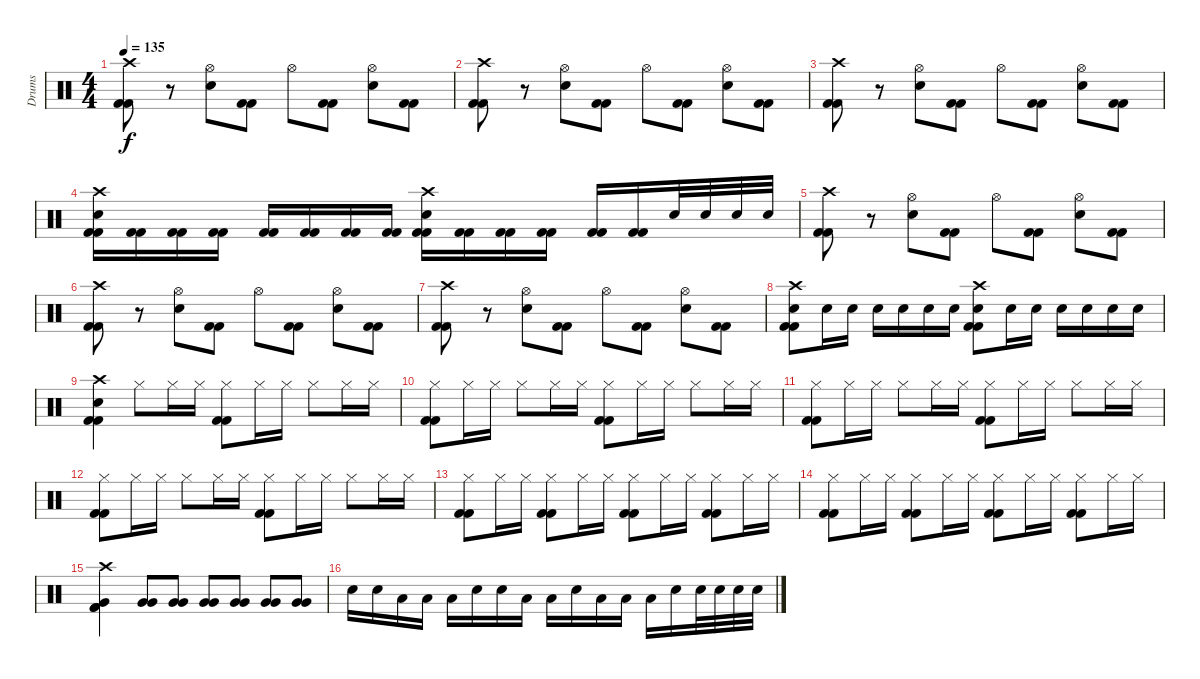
\track ("Drums" "Drums") {instrument percussion}
\staff {score}
\articulation defaults
\ts (4 4)
\tempo 135
\clef neutral
\ks c
("Crash high (hit)" "Kick (hit) 2" "Kick (hit) 2").8{dy f} r.8 ("Hi-Hat (open)" "Electric Snare (hit)").8 ("Kick (hit) 2" "Kick (hit) 2").8 "Hi-Hat (open)".8 ("Kick (hit) 2" "Kick (hit) 2").8 ("Hi-Hat (open)" "Electric Snare (hit)").8 ("Kick (hit) 2" "Kick (hit) 2").8 |
("Crash high (hit)" "Kick (hit) 2" "Kick (hit) 2").8 r.8 ("Hi-Hat (open)" "Electric Snare (hit)").8 ("Kick (hit) 2" "Kick (hit) 2").8 "Hi-Hat (open)".8 ("Kick (hit) 2" "Kick (hit) 2").8 ("Hi-Hat (open)" "Electric Snare (hit)").8 ("Kick (hit) 2" "Kick (hit) 2").8 |
("Crash high (hit)" "Kick (hit) 2" "Kick (hit) 2").8 r.8 ("Hi-Hat (open)" "Electric Snare (hit)").8 ("Kick (hit) 2" "Kick (hit) 2").8 "Hi-Hat (open)".8 ("Kick (hit) 2" "Kick (hit) 2").8 ("Hi-Hat (open)" "Electric Snare (hit)").8 ("Kick (hit) 2" "Kick (hit) 2").8 |
("Crash high (hit)" "Electric Snare (hit)" "Kick (hit) 2" "Kick (hit) 2").16 ("Kick (hit) 2" "Kick (hit) 2").16 ("Kick (hit) 2" "Kick (hit) 2").16 ("Kick (hit) 2" "Kick (hit) 2").16 ("Kick (hit) 2" "Kick (hit) 2").16 ("Kick (hit) 2" "Kick (hit) 2").16 ("Kick (hit) 2" "Kick (hit) 2").16 ("Kick (hit) 2" "Kick (hit) 2").16 ("Crash high (hit)" "Electric Snare (hit)" "Kick (hit) 2" "Kick (hit) 2").16 ("Kick (hit) 2" "Kick (hit) 2").16 ("Kick (hit) 2" "Kick (hit) 2").16 ("Kick (hit) 2" "Kick (hit) 2").16 ("Kick (hit) 2" "Kick (hit) 2").16 ("Kick (hit) 2" "Kick (hit) 2").16 "Electric Snare (hit)".32 "Electric Snare (hit)".32 "Electric Snare (hit)".32 "Electric Snare (hit)".32 |
("Crash high (hit)" "Kick (hit) 2" "Kick (hit) 2").8 r.8 ("Hi-Hat (open)" "Electric Snare (hit)").8 ("Kick (hit) 2" "Kick (hit) 2").8 "Hi-Hat (open)".8 ("Kick (hit) 2" "Kick (hit) 2").8 ("Hi-Hat (open)" "Electric Snare (hit)").8 ("Kick (hit) 2" "Kick (hit) 2").8 |
("Crash high (hit)" "Kick (hit) 2" "Kick (hit) 2").8 r.8 ("Hi-Hat (open)" "Electric Snare (hit)").8 ("Kick (hit) 2" "Kick (hit) 2").8 "Hi-Hat (open)".8 ("Kick (hit) 2" "Kick (hit) 2").8 ("Hi-Hat (open)" "Electric Snare (hit)").8 ("Kick (hit) 2" "Kick (hit) 2").8 |
("Crash high (hit)" "Kick (hit) 2" "Kick (hit) 2").8 r.8 ("Hi-Hat (open)" "Electric Snare (hit)").8 ("Kick (hit) 2" "Kick (hit) 2").8 "Hi-Hat (open)".8 ("Kick (hit) 2" "Kick (hit) 2").8 ("Hi-Hat (open)" "Electric Snare (hit)").8 ("Kick (hit) 2" "Kick (hit) 2").8 |
("Crash high (hit)" "Kick (hit) 2" "Electric Snare (hit)" "Kick (hit) 2").8 "Electric Snare (hit)".16 "Electric Snare (hit)".16 "Electric Snare (hit)".16 "Electric Snare (hit)".16 "Electric Snare (hit)".16 "Electric Snare (hit)".16 ("Crash high (hit)" "Kick (hit) 2" "Electric Snare (hit)" "Kick (hit) 2").8 "Electric Snare (hit)".16 "Electric Snare (hit)".16 "Electric Snare (hit)".16 "Electric Snare (hit)".16 "Electric Snare (hit)".16 "Electric Snare (hit)".16 |
("Crash high (hit)" "Electric Snare (hit)" "Kick (hit) 2" "Kick (hit) 2").4 "Hi-Hat (closed)".8 "Hi-Hat (closed)".16 "Hi-Hat (closed)".16 ("Hi-Hat (closed)" "Kick (hit) 2" "Kick (hit) 2").8 "Hi-Hat (closed)".16 "Hi-Hat (closed)".16 "Hi-Hat (closed)".8 "Hi-Hat (closed)".16 "Hi-Hat (closed)".16 |
("Hi-Hat (closed)" "Kick (hit) 2" "Kick (hit) 2").8 "Hi-Hat (closed)".16 "Hi-Hat (closed)".16 "Hi-Hat (closed)".8 "Hi-Hat (closed)".16 "Hi-Hat (closed)".16 ("Hi-Hat (closed)" "Kick (hit) 2" "Kick (hit) 2").8 "Hi-Hat (closed)".16 "Hi-Hat (closed)".16 "Hi-Hat (closed)".8 "Hi-Hat (closed)".16 "Hi-Hat (closed)".16 |
("Hi-Hat (closed)" "Kick (hit) 2" "Kick (hit) 2").8 "Hi-Hat (closed)".16 "Hi-Hat (closed)".16 "Hi-Hat (closed)".8 "Hi-Hat (closed)".16 "Hi-Hat (closed)".16 ("Hi-Hat (closed)" "Kick (hit) 2" "Kick (hit) 2").8 "Hi-Hat (closed)".16 "Hi-Hat (closed)".16 "Hi-Hat (closed)".8 "Hi-Hat (closed)".16 "Hi-Hat (closed)".16 |
("Hi-Hat (closed)" "Kick (hit) 2" "Kick (hit) 2").8 "Hi-Hat (closed)".16 "Hi-Hat (closed)".16 "Hi-Hat (closed)".8 "Hi-Hat (closed)".16 "Hi-Hat (closed)".16 ("Hi-Hat (closed)" "Kick (hit) 2" "Kick (hit) 2").8 "Hi-Hat (closed)".16 "Hi-Hat (closed)".16 "Hi-Hat (closed)".8 "Hi-Hat (closed)".16 "Hi-Hat (closed)".16 |
("Hi-Hat (closed)" "Kick (hit) 2" "Kick (hit) 2").8 "Hi-Hat (closed)".16 "Hi-Hat (closed)".16 ("Hi-Hat (closed)" "Kick (hit) 2" "Kick (hit) 2").8 "Hi-Hat (closed)".16 "Hi-Hat (closed)".16 ("Hi-Hat (closed)" "Kick (hit) 2" "Kick (hit) 2").8 "Hi-Hat (closed)".16 "Hi-Hat (closed)".16 ("Hi-Hat (closed)" "Kick (hit) 2" "Kick (hit) 2").8 "Hi-Hat (closed)".16 "Hi-Hat (closed)".16 |
("Hi-Hat (closed)" "Kick (hit) 2" "Kick (hit) 2").8 "Hi-Hat (closed)".16 "Hi-Hat (closed)".16 ("Hi-Hat (closed)" "Kick (hit) 2" "Kick (hit) 2").8 "Hi-Hat (closed)".16 "Hi-Hat (closed)".16 ("Hi-Hat (closed)" "Kick (hit) 2" "Kick (hit) 2").8 "Hi-Hat (closed)".16 "Hi-Hat (closed)".16 ("Hi-Hat (closed)" "Kick (hit) 2" "Kick (hit) 2").8 "Hi-Hat (closed)".16 "Hi-Hat (closed)".16 |
("Crash high (hit)" "Very Low Tom (hit)" "Kick (hit) 2" "Kick (hit) 2").4 ("Very Low Tom (hit)" "Very Low Tom (hit)").8 ("Very Low Tom (hit)" "Very Low Tom (hit)").8 ("Very Low Tom (hit)" "Very Low Tom (hit)").8 ("Very Low Tom (hit)" "Very Low Tom (hit)").8 ("Very Low Tom (hit)" "Very Low Tom (hit)").8 ("Very Low Tom (hit)" "Very Low Tom (hit)").8 |
"Electric Snare (hit)".16 "Electric Snare (hit)".16 "Low Floor Tom (hit)".16 "Low Floor Tom (hit)".16 "Low Floor Tom (hit)".16 "Electric Snare (hit)".16 "Electric Snare (hit)".16 "Low Floor Tom (hit)".16 "Low Floor Tom (hit)".16 "Electric Snare (hit)".16 "Low Floor Tom (hit)".16 "Low Floor Tom (hit)".16 "Low Floor Tom (hit)".16 "Electric Snare (hit)".16 "Electric Snare (hit)".32 "Electric Snare (hit)".32 "Electric Snare (hit)".32 "Electric Snare (hit)".32
